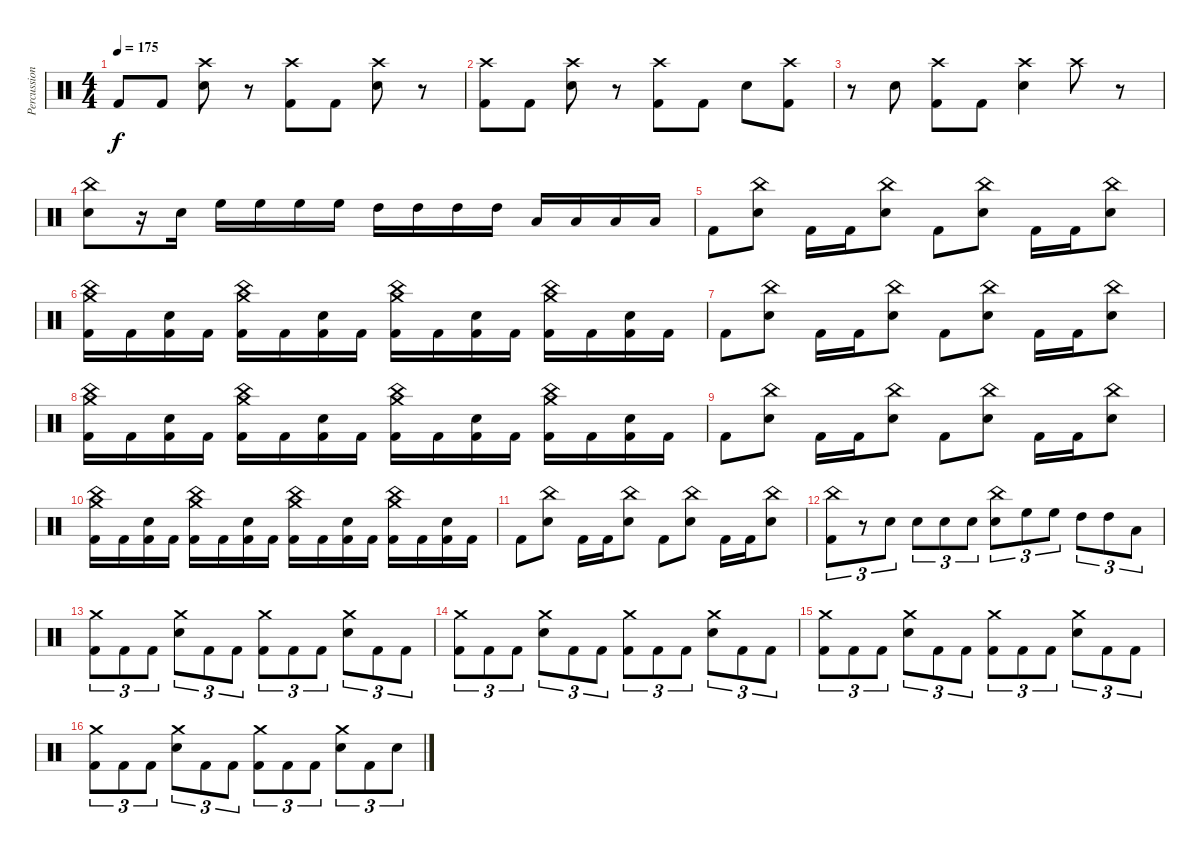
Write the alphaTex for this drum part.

\track ("Percussion" "Percussion") {instrument percussion}
\staff {score}
\articulation defaults
\ts (4 4)
\tempo 175
\clef neutral
\ks c "Kick (hit) 2"{t}.8{dy f} "Kick (hit) 2".8
("Crash high (hit)" "Electric Snare (hit)").8 r.8 ("Crash high (hit)" "Kick (hit) 2").8 "Kick (hit) 2".8 ("Crash high (hit)" "Electric Snare (hit)").8 r.8 |
("Crash high (hit)" "Kick (hit) 2").8 "Kick (hit) 2".8 ("Crash high (hit)" "Electric Snare (hit)").8 r.8 ("Crash high (hit)" "Kick (hit) 2").8 "Kick (hit) 2".8 "Electric Snare (hit)".8 ("Crash high (hit)" "Kick (hit) 2").8 |
r.8 "Electric Snare (hit)".8 ("Crash high (hit)" "Kick (hit) 2").8 "Kick (hit) 2".8 ("Crash high (hit)" "Electric Snare (hit)").4 "Crash high (hit)".8 r.8 |
("China (hit)" "Electric Snare (hit)").8 r.16 "Electric Snare (hit)".16 "High Floor Tom (hit)".16 "High Floor Tom (hit)".16 "High Floor Tom (hit)".16 "High Floor Tom (hit)".16 "High Tom (hit)".16 "High Tom (hit)".16 "High Tom (hit)".16 "High Tom (hit)".16 "Low Floor Tom (hit)".16 "Low Floor Tom (hit)".16 "Low Floor Tom (hit)".16 "Low Floor Tom (hit)".16 |
"Kick (hit) 2".8 ("China (hit)" "Electric Snare (hit)").8 "Kick (hit) 2".16 "Kick (hit) 2".16 ("China (hit)" "Electric Snare (hit)").8 "Kick (hit) 2".8 ("China (hit)" "Electric Snare (hit)").8 "Kick (hit) 2".16 "Kick (hit) 2".16 ("China (hit)" "Electric Snare (hit)").8 |
("Crash medium (hit)" "China (hit)" "Kick (hit) 2").16 "Kick (hit) 2".16 ("Electric Snare (hit)" "Kick (hit) 2").16 "Kick (hit) 2".16 ("Crash medium (hit)" "China (hit)" "Kick (hit) 2").16 "Kick (hit) 2".16 ("Electric Snare (hit)" "Kick (hit) 2").16 "Kick (hit) 2".16 ("Crash medium (hit)" "China (hit)" "Kick (hit) 2").16 "Kick (hit) 2".16 ("Electric Snare (hit)" "Kick (hit) 2").16 "Kick (hit) 2".16 ("Crash medium (hit)" "China (hit)" "Kick (hit) 2").16 "Kick (hit) 2".16 ("Electric Snare (hit)" "Kick (hit) 2").16 "Kick (hit) 2".16 |
"Kick (hit) 2".8 ("China (hit)" "Electric Snare (hit)").8 "Kick (hit) 2".16 "Kick (hit) 2".16 ("China (hit)" "Electric Snare (hit)").8 "Kick (hit) 2".8 ("China (hit)" "Electric Snare (hit)").8 "Kick (hit) 2".16 "Kick (hit) 2".16 ("China (hit)" "Electric Snare (hit)").8 |
("Crash medium (hit)" "China (hit)" "Kick (hit) 2").16 "Kick (hit) 2".16 ("Electric Snare (hit)" "Kick (hit) 2").16 "Kick (hit) 2".16 ("Crash medium (hit)" "China (hit)" "Kick (hit) 2").16 "Kick (hit) 2".16 ("Electric Snare (hit)" "Kick (hit) 2").16 "Kick (hit) 2".16 ("Crash medium (hit)" "China (hit)" "Kick (hit) 2").16 "Kick (hit) 2".16 ("Electric Snare (hit)" "Kick (hit) 2").16 "Kick (hit) 2".16 ("Crash medium (hit)" "China (hit)" "Kick (hit) 2").16 "Kick (hit) 2".16 ("Electric Snare (hit)" "Kick (hit) 2").16 "Kick (hit) 2".16 |
"Kick (hit) 2".8 ("China (hit)" "Electric Snare (hit)").8 "Kick (hit) 2".16 "Kick (hit) 2".16 ("China (hit)" "Electric Snare (hit)").8 "Kick (hit) 2".8 ("China (hit)" "Electric Snare (hit)").8 "Kick (hit) 2".16 "Kick (hit) 2".16 ("China (hit)" "Electric Snare (hit)").8 |
("Crash medium (hit)" "China (hit)" "Kick (hit) 2").16 "Kick (hit) 2".16 ("Electric Snare (hit)" "Kick (hit) 2").16 "Kick (hit) 2".16 ("Crash medium (hit)" "China (hit)" "Kick (hit) 2").16 "Kick (hit) 2".16 ("Electric Snare (hit)" "Kick (hit) 2").16 "Kick (hit) 2".16 ("Crash medium (hit)" "China (hit)" "Kick (hit) 2").16 "Kick (hit) 2".16 ("Electric Snare (hit)" "Kick (hit) 2").16 "Kick (hit) 2".16 ("Crash medium (hit)" "China (hit)" "Kick (hit) 2").16 "Kick (hit) 2".16 ("Electric Snare (hit)" "Kick (hit) 2").16 "Kick (hit) 2".16 |
"Kick (hit) 2".8 ("China (hit)" "Electric Snare (hit)").8 "Kick (hit) 2".16 "Kick (hit) 2".16 ("China (hit)" "Electric Snare (hit)").8 "Kick (hit) 2".8 ("China (hit)" "Electric Snare (hit)").8 "Kick (hit) 2".16 "Kick (hit) 2".16 ("China (hit)" "Electric Snare (hit)").8 |
("China (hit)" "Kick (hit) 2").8{tu (3 2)} r.8{tu (3 2)} "Electric Snare (hit)".8{tu (3 2)} "Electric Snare (hit)".8{tu (3 2)} "Electric Snare (hit)".8{tu (3 2)} "Electric Snare (hit)".8{tu (3 2)} ("China (hit)" "Electric Snare (hit)").8{tu (3 2)} "High Floor Tom (hit)".8{tu (3 2)} "High Floor Tom (hit)".8{tu (3 2)} "High Tom (hit)".8{tu (3 2)} "High Tom (hit)".8{tu (3 2)} "Low Floor Tom (hit)".8{tu (3 2)} |
("Crash medium (hit)" "Kick (hit) 2").8{tu (3 2)} "Kick (hit) 2".8{tu (3 2)} "Kick (hit) 2".8{tu (3 2)} ("Crash medium (hit)" "Electric Snare (hit)").8{tu (3 2)} "Kick (hit) 2".8{tu (3 2)} "Kick (hit) 2".8{tu (3 2)} ("Crash medium (hit)" "Kick (hit) 2").8{tu (3 2)} "Kick (hit) 2".8{tu (3 2)} "Kick (hit) 2".8{tu (3 2)} ("Crash medium (hit)" "Electric Snare (hit)").8{tu (3 2)} "Kick (hit) 2".8{tu (3 2)} "Kick (hit) 2".8{tu (3 2)} |
("Crash medium (hit)" "Kick (hit) 2").8{tu (3 2)} "Kick (hit) 2".8{tu (3 2)} "Kick (hit) 2".8{tu (3 2)} ("Crash medium (hit)" "Electric Snare (hit)").8{tu (3 2)} "Kick (hit) 2".8{tu (3 2)} "Kick (hit) 2".8{tu (3 2)} ("Crash medium (hit)" "Kick (hit) 2").8{tu (3 2)} "Kick (hit) 2".8{tu (3 2)} "Kick (hit) 2".8{tu (3 2)} ("Crash medium (hit)" "Electric Snare (hit)").8{tu (3 2)} "Kick (hit) 2".8{tu (3 2)} "Kick (hit) 2".8{tu (3 2)} |
("Crash medium (hit)" "Kick (hit) 2").8{tu (3 2)} "Kick (hit) 2".8{tu (3 2)} "Kick (hit) 2".8{tu (3 2)} ("Crash medium (hit)" "Electric Snare (hit)").8{tu (3 2)} "Kick (hit) 2".8{tu (3 2)} "Kick (hit) 2".8{tu (3 2)} ("Crash medium (hit)" "Kick (hit) 2").8{tu (3 2)} "Kick (hit) 2".8{tu (3 2)} "Kick (hit) 2".8{tu (3 2)} ("Crash medium (hit)" "Electric Snare (hit)").8{tu (3 2)} "Kick (hit) 2".8{tu (3 2)} "Kick (hit) 2".8{tu (3 2)} |
("Crash medium (hit)" "Kick (hit) 2").8{tu (3 2)} "Kick (hit) 2".8{tu (3 2)} "Kick (hit) 2".8{tu (3 2)} ("Crash medium (hit)" "Electric Snare (hit)").8{tu (3 2)} "Kick (hit) 2".8{tu (3 2)} "Kick (hit) 2".8{tu (3 2)} ("Crash medium (hit)" "Kick (hit) 2").8{tu (3 2)} "Kick (hit) 2".8{tu (3 2)} "Kick (hit) 2".8{tu (3 2)} ("Crash medium (hit)" "Electric Snare (hit)").8{tu (3 2)} "Kick (hit) 2".8{tu (3 2)} "Electric Snare (hit)".8{tu (3 2)}
